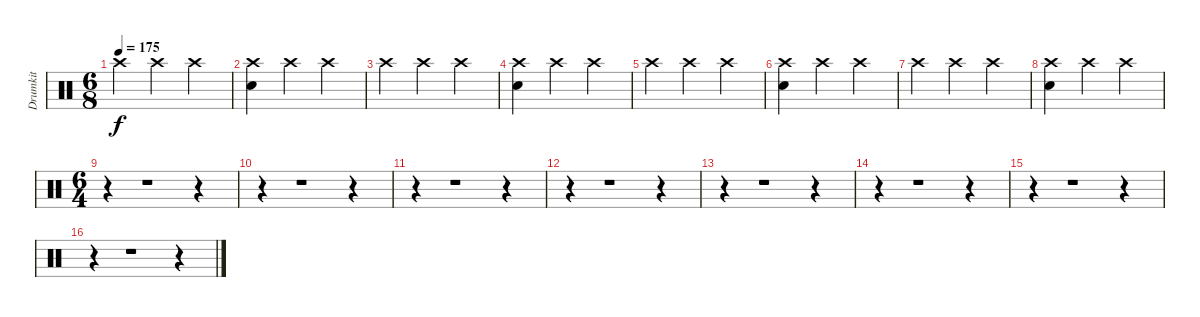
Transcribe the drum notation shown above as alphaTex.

\track ("Drumkit" "Drumkit") {instrument percussion}
\staff {score}
\articulation defaults
\ts (6 8)
\tempo 175
\clef neutral
\ks c "Crash high (hit)".4{dy f} "Crash high (hit)".4 "Crash high (hit)".4
|
("Crash high (hit)" "Snare (hit) 2").4 "Crash high (hit)".4 "Crash high (hit)".4 |
"Crash high (hit)".4 "Crash high (hit)".4 "Crash high (hit)".4 |
("Crash high (hit)" "Snare (hit) 2").4 "Crash high (hit)".4 "Crash high (hit)".4 |
"Crash high (hit)".4 "Crash high (hit)".4 "Crash high (hit)".4 |
("Crash high (hit)" "Snare (hit) 2").4 "Crash high (hit)".4 "Crash high (hit)".4 |
"Crash high (hit)".4 "Crash high (hit)".4 "Crash high (hit)".4 |
("Crash high (hit)" "Snare (hit) 2").4 "Crash high (hit)".4 "Crash high (hit)".4 |
\ts (6 4)
r.4 r.1 r.4 |
r.4 r.1 r.4 |
r.4 r.1 r.4 |
r.4 r.1 r.4 |
r.4 r.1 r.4 |
r.4 r.1 r.4 |
r.4 r.1 r.4 |
r.4 r.1 r.4
